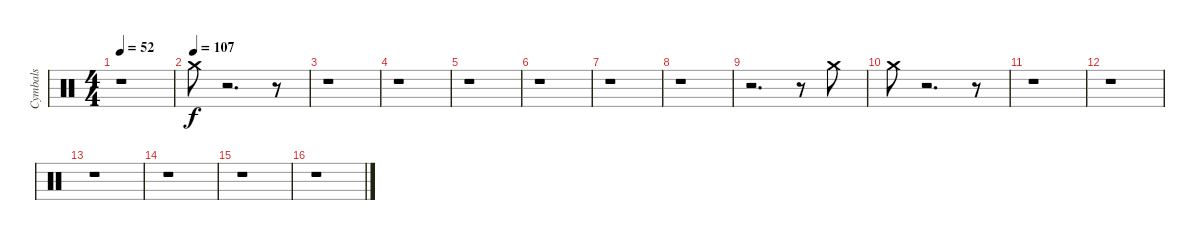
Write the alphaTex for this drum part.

\track ("Cymbals" "Cymbals") {instrument percussion}
\staff {score}
\articulation defaults
\ts (4 4)
\tempo 52
\clef neutral
\ks c
r.1{dy f} |
\tempo (107)
"Crash medium (hit)".8 r.2{d} r.8 |
r.1 |
r.1 |
r.1 |
r.1 |
r.1 |
r.1 |
r.2{d} r.8 "Crash medium (hit)".8 |
"Crash medium (hit)".8 r.2{d} r.8 |
r.1 |
r.1 |
r.1 |
r.1 |
r.1 |
r.1
